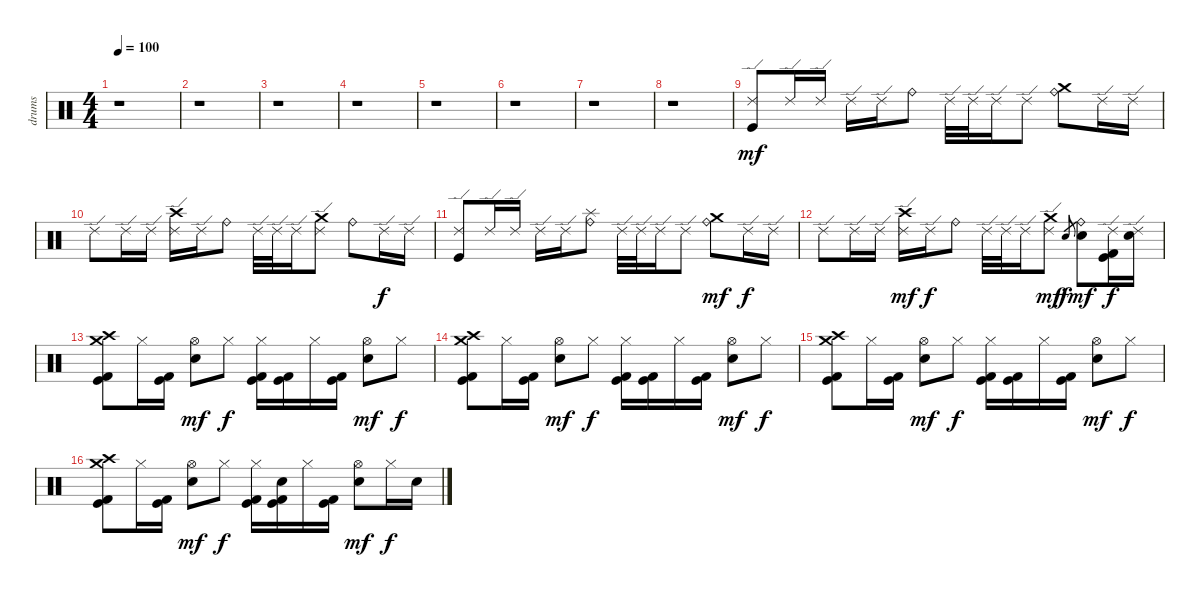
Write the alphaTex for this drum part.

\track ("drums" "drums") {instrument percussion}
\staff {score}
\articulation defaults
\ts (4 4)
\tempo 100
\clef neutral
\ks c
r.1{dy mf} |
r.1 |
r.1 |
r.1 |
r.1 |
r.1 |
r.1 |
r.1 |
("Ride (edge) 2" "Kick (hit)").8 "Ride (edge) 2".16 "Ride (edge) 2".16 "Ride (edge) 2".16 "Ride (edge) 2".16 "Ride (bell)".8 "Ride (edge) 2".32 "Ride (edge) 2".32 "Ride (edge) 2".16 "Ride (edge) 2".8 ("Ride (bell)" "Crash medium (hit)").8 "Ride (edge) 2".16 "Ride (edge) 2".16 |
"Ride (edge) 2".8 "Ride (edge) 2".16 "Ride (edge) 2".16 ("Ride (edge) 2" "Crash high (hit)").16 "Ride (edge) 2".16 "Ride (bell)".8 "Ride (edge) 2".32 "Ride (edge) 2".32 "Ride (edge) 2".16 ("Ride (edge) 2" "Crash medium (hit)").8 "Ride (bell)".8 "Ride (edge) 2".16{dy f} "Ride (edge) 2".16 |
("Ride (edge) 2" "Kick (hit)").8 "Ride (edge) 2".16 "Ride (edge) 2".16 "Ride (edge) 2".16 "Ride (edge) 2".16 ("Ride (bell)" "Splash (hit)").8 "Ride (edge) 2".32 "Ride (edge) 2".32 "Ride (edge) 2".16 "Ride (edge) 2".8 ("Ride (bell)" "Crash medium (hit)").8{dy mf} "Ride (edge) 2".16{dy f} "Ride (edge) 2".16 |
"Ride (edge) 2".8 "Ride (edge) 2".16 "Ride (edge) 2".16 ("Ride (edge) 2" "Crash high (hit)").16{dy mf} "Ride (edge) 2".16{dy f} "Ride (bell)".8 "Ride (edge) 2".32 "Ride (edge) 2".32 "Ride (edge) 2".16 ("Ride (edge) 2" "Crash medium (hit)").8{dy mf} "Electric Snare (hit)".8{gr dy f} ("Ride (bell)" "Electric Snare (hit)").8{dy mf} ("Ride (edge) 2" "Kick (hit) 2" "Kick (hit)").16{dy f} ("Ride (edge) 2" "Electric Snare (hit)").16 |
("Crash high (hit)" "Crash medium (hit)" "Kick (hit) 2" "Kick (hit)").8 "Hi-Hat (closed)".16 ("Kick (hit) 2" "Kick (hit)").16 ("Hi-Hat (open)" "Electric Snare (hit)").8{dy mf} "Hi-Hat (closed)".8{dy f} ("Hi-Hat (closed)" "Kick (hit) 2" "Kick (hit)").16 ("Kick (hit) 2" "Kick (hit)").16 "Hi-Hat (closed)".16 ("Kick (hit) 2" "Kick (hit)").16 ("Hi-Hat (open)" "Electric Snare (hit)").8{dy mf} "Hi-Hat (closed)".8{dy f} |
("Crash high (hit)" "Crash medium (hit)" "Kick (hit) 2" "Kick (hit)").8 "Hi-Hat (closed)".16 ("Kick (hit) 2" "Kick (hit)").16 ("Hi-Hat (open)" "Electric Snare (hit)").8{dy mf} "Hi-Hat (closed)".8{dy f} ("Hi-Hat (closed)" "Kick (hit) 2" "Kick (hit)").16 ("Kick (hit) 2" "Kick (hit)").16 "Hi-Hat (closed)".16 ("Kick (hit) 2" "Kick (hit)").16 ("Hi-Hat (open)" "Electric Snare (hit)").8{dy mf} "Hi-Hat (closed)".8{dy f} |
("Crash high (hit)" "Crash medium (hit)" "Kick (hit) 2" "Kick (hit)").8 "Hi-Hat (closed)".16 ("Kick (hit) 2" "Kick (hit)").16 ("Hi-Hat (open)" "Electric Snare (hit)").8{dy mf} "Hi-Hat (closed)".8{dy f} ("Hi-Hat (closed)" "Kick (hit) 2" "Kick (hit)").16 ("Kick (hit) 2" "Kick (hit)").16 "Hi-Hat (closed)".16 ("Kick (hit) 2" "Kick (hit)").16 ("Hi-Hat (open)" "Electric Snare (hit)").8{dy mf} "Hi-Hat (closed)".8{dy f} |
("Crash high (hit)" "Crash medium (hit)" "Kick (hit) 2" "Kick (hit)").8 "Hi-Hat (closed)".16 ("Kick (hit) 2" "Kick (hit)").16 ("Hi-Hat (open)" "Electric Snare (hit)").8{dy mf} "Hi-Hat (closed)".8{dy f} ("Hi-Hat (closed)" "Kick (hit) 2" "Kick (hit)").16 ("Electric Snare (hit)" "Kick (hit) 2" "Kick (hit)").16 "Hi-Hat (closed)".16 ("Kick (hit) 2" "Kick (hit)").16 ("Hi-Hat (open)" "Electric Snare (hit)").8{dy mf} "Hi-Hat (closed)".16{dy f} "Electric Snare (hit)".16
